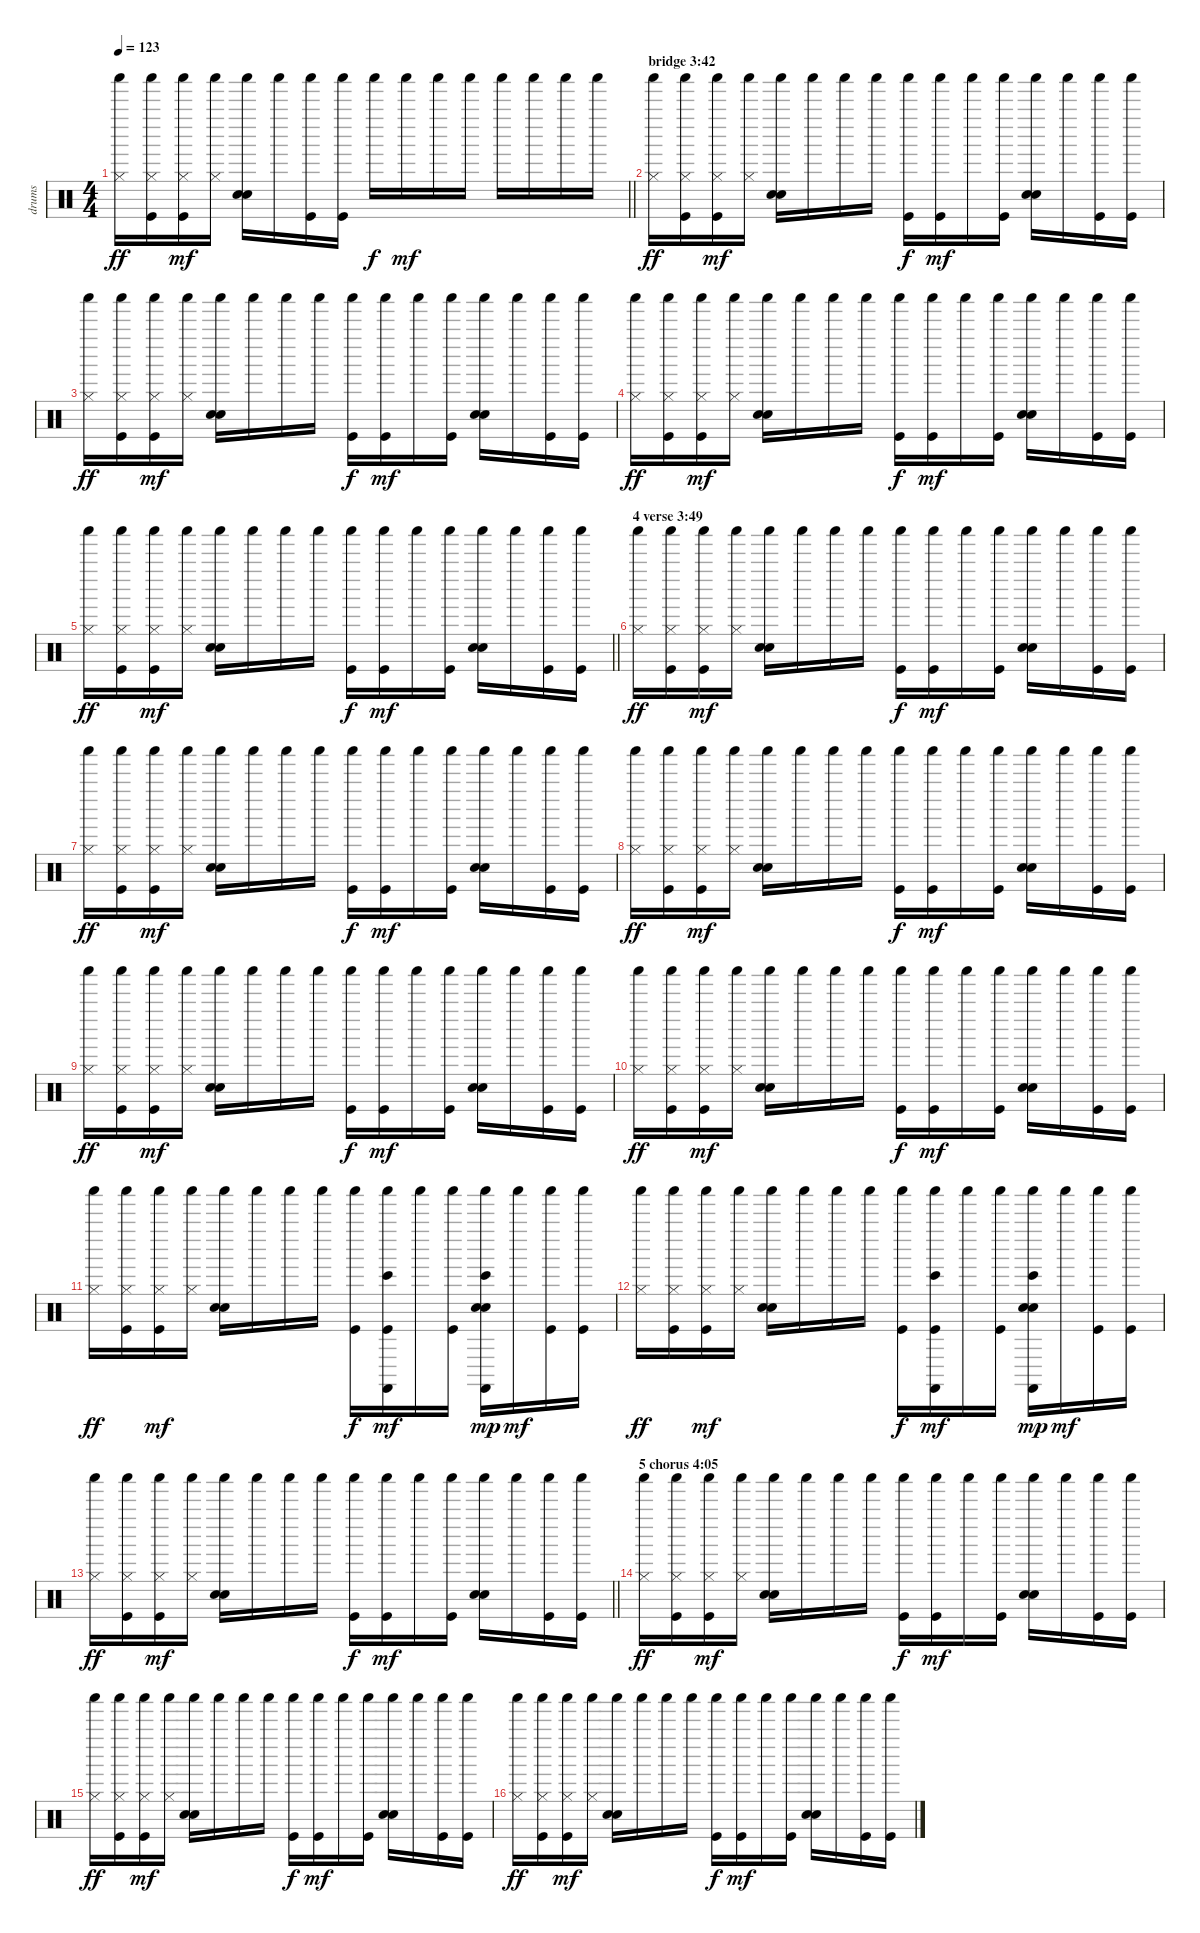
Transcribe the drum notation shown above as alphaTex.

\track ("drums" "drums") {instrument percussion}
\staff {score}
\articulation defaults
\ts (4 4)
\tempo 123
\clef neutral
\barLineRight lightlight
\ks c
("Shaker (hit)" "Hi-Hat (closed)").16{dy ff} ("Shaker (hit)" "Hi-Hat (closed)" "Kick (hit)").16 ("Shaker (hit)" "Hi-Hat (closed)" "Kick (hit)").16{dy mf} ("Shaker (hit)" "Hi-Hat (closed)").16 ("Shaker (hit)" "Electric Snare (hit)" "Hand Clap (hit)").16 "Shaker (hit)".16 ("Shaker (hit)" "Kick (hit)").16 ("Shaker (hit)" "Kick (hit)").16 "Shaker (hit)".16{dy f} "Shaker (hit)".16{dy mf} "Shaker (hit)".16 "Shaker (hit)".16 "Shaker (hit)".16 "Shaker (hit)".16 "Shaker (hit)".16 "Shaker (hit)".16 |
\section ("" "bridge 3:42")
("Shaker (hit)" "Hi-Hat (closed)").16{dy ff} ("Shaker (hit)" "Hi-Hat (closed)" "Kick (hit)").16 ("Shaker (hit)" "Hi-Hat (closed)" "Kick (hit)").16{dy mf} ("Shaker (hit)" "Hi-Hat (closed)").16 ("Shaker (hit)" "Electric Snare (hit)" "Hand Clap (hit)").16 "Shaker (hit)".16 "Shaker (hit)".16 "Shaker (hit)".16 ("Shaker (hit)" "Kick (hit)").16{dy f} ("Shaker (hit)" "Kick (hit)").16{dy mf} "Shaker (hit)".16 ("Shaker (hit)" "Kick (hit)").16 ("Shaker (hit)" "Electric Snare (hit)" "Hand Clap (hit)").16 "Shaker (hit)".16 ("Shaker (hit)" "Kick (hit)").16 ("Shaker (hit)" "Kick (hit)").16 |
("Shaker (hit)" "Hi-Hat (closed)").16{dy ff} ("Shaker (hit)" "Hi-Hat (closed)" "Kick (hit)").16 ("Shaker (hit)" "Hi-Hat (closed)" "Kick (hit)").16{dy mf} ("Shaker (hit)" "Hi-Hat (closed)").16 ("Shaker (hit)" "Electric Snare (hit)" "Hand Clap (hit)").16 "Shaker (hit)".16 "Shaker (hit)".16 "Shaker (hit)".16 ("Shaker (hit)" "Kick (hit)").16{dy f} ("Shaker (hit)" "Kick (hit)").16{dy mf} "Shaker (hit)".16 ("Shaker (hit)" "Kick (hit)").16 ("Shaker (hit)" "Electric Snare (hit)" "Hand Clap (hit)").16 "Shaker (hit)".16 ("Shaker (hit)" "Kick (hit)").16 ("Shaker (hit)" "Kick (hit)").16 |
("Shaker (hit)" "Hi-Hat (closed)").16{dy ff} ("Shaker (hit)" "Hi-Hat (closed)" "Kick (hit)").16 ("Shaker (hit)" "Hi-Hat (closed)" "Kick (hit)").16{dy mf} ("Shaker (hit)" "Hi-Hat (closed)").16 ("Shaker (hit)" "Electric Snare (hit)" "Hand Clap (hit)").16 "Shaker (hit)".16 "Shaker (hit)".16 "Shaker (hit)".16 ("Shaker (hit)" "Kick (hit)").16{dy f} ("Shaker (hit)" "Kick (hit)").16{dy mf} "Shaker (hit)".16 ("Shaker (hit)" "Kick (hit)").16 ("Shaker (hit)" "Electric Snare (hit)" "Hand Clap (hit)").16 "Shaker (hit)".16 ("Shaker (hit)" "Kick (hit)").16 ("Shaker (hit)" "Kick (hit)").16 |
\barLineRight lightlight
("Shaker (hit)" "Hi-Hat (closed)").16{dy ff} ("Shaker (hit)" "Hi-Hat (closed)" "Kick (hit)").16 ("Shaker (hit)" "Hi-Hat (closed)" "Kick (hit)").16{dy mf} ("Shaker (hit)" "Hi-Hat (closed)").16 ("Shaker (hit)" "Electric Snare (hit)" "Hand Clap (hit)").16 "Shaker (hit)".16 "Shaker (hit)".16 "Shaker (hit)".16 ("Shaker (hit)" "Kick (hit)").16{dy f} ("Shaker (hit)" "Kick (hit)").16{dy mf} "Shaker (hit)".16 ("Shaker (hit)" "Kick (hit)").16 ("Shaker (hit)" "Electric Snare (hit)" "Hand Clap (hit)").16 "Shaker (hit)".16 ("Shaker (hit)" "Kick (hit)").16 ("Shaker (hit)" "Kick (hit)").16 |
\section ("" "4 verse 3:49")
("Shaker (hit)" "Hi-Hat (closed)").16{dy ff} ("Shaker (hit)" "Hi-Hat (closed)" "Kick (hit)").16 ("Shaker (hit)" "Hi-Hat (closed)" "Kick (hit)").16{dy mf} ("Shaker (hit)" "Hi-Hat (closed)").16 ("Shaker (hit)" "Electric Snare (hit)" "Hand Clap (hit)").16 "Shaker (hit)".16 "Shaker (hit)".16 "Shaker (hit)".16 ("Shaker (hit)" "Kick (hit)").16{dy f} ("Shaker (hit)" "Kick (hit)").16{dy mf} "Shaker (hit)".16 ("Shaker (hit)" "Kick (hit)").16 ("Shaker (hit)" "Electric Snare (hit)" "Hand Clap (hit)").16 "Shaker (hit)".16 ("Shaker (hit)" "Kick (hit)").16 ("Shaker (hit)" "Kick (hit)").16 |
("Shaker (hit)" "Hi-Hat (closed)").16{dy ff} ("Shaker (hit)" "Hi-Hat (closed)" "Kick (hit)").16 ("Shaker (hit)" "Hi-Hat (closed)" "Kick (hit)").16{dy mf} ("Shaker (hit)" "Hi-Hat (closed)").16 ("Shaker (hit)" "Electric Snare (hit)" "Hand Clap (hit)").16 "Shaker (hit)".16 "Shaker (hit)".16 "Shaker (hit)".16 ("Shaker (hit)" "Kick (hit)").16{dy f} ("Shaker (hit)" "Kick (hit)").16{dy mf} "Shaker (hit)".16 ("Shaker (hit)" "Kick (hit)").16 ("Shaker (hit)" "Electric Snare (hit)" "Hand Clap (hit)").16 "Shaker (hit)".16 ("Shaker (hit)" "Kick (hit)").16 ("Shaker (hit)" "Kick (hit)").16 |
("Shaker (hit)" "Hi-Hat (closed)").16{dy ff} ("Shaker (hit)" "Hi-Hat (closed)" "Kick (hit)").16 ("Shaker (hit)" "Hi-Hat (closed)" "Kick (hit)").16{dy mf} ("Shaker (hit)" "Hi-Hat (closed)").16 ("Shaker (hit)" "Electric Snare (hit)" "Hand Clap (hit)").16 "Shaker (hit)".16 "Shaker (hit)".16 "Shaker (hit)".16 ("Shaker (hit)" "Kick (hit)").16{dy f} ("Shaker (hit)" "Kick (hit)").16{dy mf} "Shaker (hit)".16 ("Shaker (hit)" "Kick (hit)").16 ("Shaker (hit)" "Electric Snare (hit)" "Hand Clap (hit)").16 "Shaker (hit)".16 ("Shaker (hit)" "Kick (hit)").16 ("Shaker (hit)" "Kick (hit)").16 |
("Shaker (hit)" "Hi-Hat (closed)").16{dy ff} ("Shaker (hit)" "Hi-Hat (closed)" "Kick (hit)").16 ("Shaker (hit)" "Hi-Hat (closed)" "Kick (hit)").16{dy mf} ("Shaker (hit)" "Hi-Hat (closed)").16 ("Shaker (hit)" "Electric Snare (hit)" "Hand Clap (hit)").16 "Shaker (hit)".16 "Shaker (hit)".16 "Shaker (hit)".16 ("Shaker (hit)" "Kick (hit)").16{dy f} ("Shaker (hit)" "Kick (hit)").16{dy mf} "Shaker (hit)".16 ("Shaker (hit)" "Kick (hit)").16 ("Shaker (hit)" "Electric Snare (hit)" "Hand Clap (hit)").16 "Shaker (hit)".16 ("Shaker (hit)" "Kick (hit)").16 ("Shaker (hit)" "Kick (hit)").16 |
("Shaker (hit)" "Hi-Hat (closed)").16{dy ff} ("Shaker (hit)" "Hi-Hat (closed)" "Kick (hit)").16 ("Shaker (hit)" "Hi-Hat (closed)" "Kick (hit)").16{dy mf} ("Shaker (hit)" "Hi-Hat (closed)").16 ("Shaker (hit)" "Electric Snare (hit)" "Hand Clap (hit)").16 "Shaker (hit)".16 "Shaker (hit)".16 "Shaker (hit)".16 ("Shaker (hit)" "Kick (hit)").16{dy f} ("Shaker (hit)" "Kick (hit)").16{dy mf} "Shaker (hit)".16 ("Shaker (hit)" "Kick (hit)").16 ("Shaker (hit)" "Electric Snare (hit)" "Hand Clap (hit)").16 "Shaker (hit)".16 ("Shaker (hit)" "Kick (hit)").16 ("Shaker (hit)" "Kick (hit)").16 |
("Shaker (hit)" "Hi-Hat (closed)").16{dy ff} ("Shaker (hit)" "Hi-Hat (closed)" "Kick (hit)").16 ("Shaker (hit)" "Hi-Hat (closed)" "Kick (hit)").16{dy mf} ("Shaker (hit)" "Hi-Hat (closed)").16 ("Shaker (hit)" "Electric Snare (hit)" "Hand Clap (hit)").16 "Shaker (hit)".16 "Shaker (hit)".16 "Shaker (hit)".16 ("Shaker (hit)" "Kick (hit)").16{dy f} ("Shaker (hit)" "Bongo High (hit)" "Castanets (hit)" "Kick (hit)").16{dy mf} "Shaker (hit)".16 ("Shaker (hit)" "Kick (hit)").16 ("Shaker (hit)" "Electric Snare (hit)" "Hand Clap (hit)" "Bongo High (hit)" "Castanets (hit)").16{dy mp} "Shaker (hit)".16{dy mf} ("Shaker (hit)" "Kick (hit)").16 ("Shaker (hit)" "Kick (hit)").16 |
("Shaker (hit)" "Hi-Hat (closed)").16{dy ff} ("Shaker (hit)" "Hi-Hat (closed)" "Kick (hit)").16 ("Shaker (hit)" "Hi-Hat (closed)" "Kick (hit)").16{dy mf} ("Shaker (hit)" "Hi-Hat (closed)").16 ("Shaker (hit)" "Electric Snare (hit)" "Hand Clap (hit)").16 "Shaker (hit)".16 "Shaker (hit)".16 "Shaker (hit)".16 ("Shaker (hit)" "Kick (hit)").16{dy f} ("Shaker (hit)" "Bongo High (hit)" "Castanets (hit)" "Kick (hit)").16{dy mf} "Shaker (hit)".16 ("Shaker (hit)" "Kick (hit)").16 ("Shaker (hit)" "Electric Snare (hit)" "Hand Clap (hit)" "Bongo High (hit)" "Castanets (hit)").16{dy mp} "Shaker (hit)".16{dy mf} ("Shaker (hit)" "Kick (hit)").16 ("Shaker (hit)" "Kick (hit)").16 |
\barLineRight lightlight
("Shaker (hit)" "Hi-Hat (closed)").16{dy ff} ("Shaker (hit)" "Hi-Hat (closed)" "Kick (hit)").16 ("Shaker (hit)" "Hi-Hat (closed)" "Kick (hit)").16{dy mf} ("Shaker (hit)" "Hi-Hat (closed)").16 ("Shaker (hit)" "Electric Snare (hit)" "Hand Clap (hit)").16 "Shaker (hit)".16 "Shaker (hit)".16 "Shaker (hit)".16 ("Shaker (hit)" "Kick (hit)").16{dy f} ("Shaker (hit)" "Kick (hit)").16{dy mf} "Shaker (hit)".16 ("Shaker (hit)" "Kick (hit)").16 ("Shaker (hit)" "Electric Snare (hit)" "Hand Clap (hit)").16 "Shaker (hit)".16 ("Shaker (hit)" "Kick (hit)").16 ("Shaker (hit)" "Kick (hit)").16 |
\section ("" "5 chorus 4:05")
("Shaker (hit)" "Hi-Hat (closed)").16{dy ff} ("Shaker (hit)" "Hi-Hat (closed)" "Kick (hit)").16 ("Shaker (hit)" "Hi-Hat (closed)" "Kick (hit)").16{dy mf} ("Shaker (hit)" "Hi-Hat (closed)").16 ("Shaker (hit)" "Electric Snare (hit)" "Hand Clap (hit)").16 "Shaker (hit)".16 "Shaker (hit)".16 "Shaker (hit)".16 ("Shaker (hit)" "Kick (hit)").16{dy f} ("Shaker (hit)" "Kick (hit)").16{dy mf} "Shaker (hit)".16 ("Shaker (hit)" "Kick (hit)").16 ("Shaker (hit)" "Electric Snare (hit)" "Hand Clap (hit)").16 "Shaker (hit)".16 ("Shaker (hit)" "Kick (hit)").16 ("Shaker (hit)" "Kick (hit)").16 |
("Shaker (hit)" "Hi-Hat (closed)").16{dy ff} ("Shaker (hit)" "Hi-Hat (closed)" "Kick (hit)").16 ("Shaker (hit)" "Hi-Hat (closed)" "Kick (hit)").16{dy mf} ("Shaker (hit)" "Hi-Hat (closed)").16 ("Shaker (hit)" "Electric Snare (hit)" "Hand Clap (hit)").16 "Shaker (hit)".16 "Shaker (hit)".16 "Shaker (hit)".16 ("Shaker (hit)" "Kick (hit)").16{dy f} ("Shaker (hit)" "Kick (hit)").16{dy mf} "Shaker (hit)".16 ("Shaker (hit)" "Kick (hit)").16 ("Shaker (hit)" "Electric Snare (hit)" "Hand Clap (hit)").16 "Shaker (hit)".16 ("Shaker (hit)" "Kick (hit)").16 ("Shaker (hit)" "Kick (hit)").16 |
("Shaker (hit)" "Hi-Hat (closed)").16{dy ff} ("Shaker (hit)" "Hi-Hat (closed)" "Kick (hit)").16 ("Shaker (hit)" "Hi-Hat (closed)" "Kick (hit)").16{dy mf} ("Shaker (hit)" "Hi-Hat (closed)").16 ("Shaker (hit)" "Electric Snare (hit)" "Hand Clap (hit)").16 "Shaker (hit)".16 "Shaker (hit)".16 "Shaker (hit)".16 ("Shaker (hit)" "Kick (hit)").16{dy f} ("Shaker (hit)" "Kick (hit)").16{dy mf} "Shaker (hit)".16 ("Shaker (hit)" "Kick (hit)").16 ("Shaker (hit)" "Electric Snare (hit)" "Hand Clap (hit)").16 "Shaker (hit)".16 ("Shaker (hit)" "Kick (hit)").16 ("Shaker (hit)" "Kick (hit)").16
